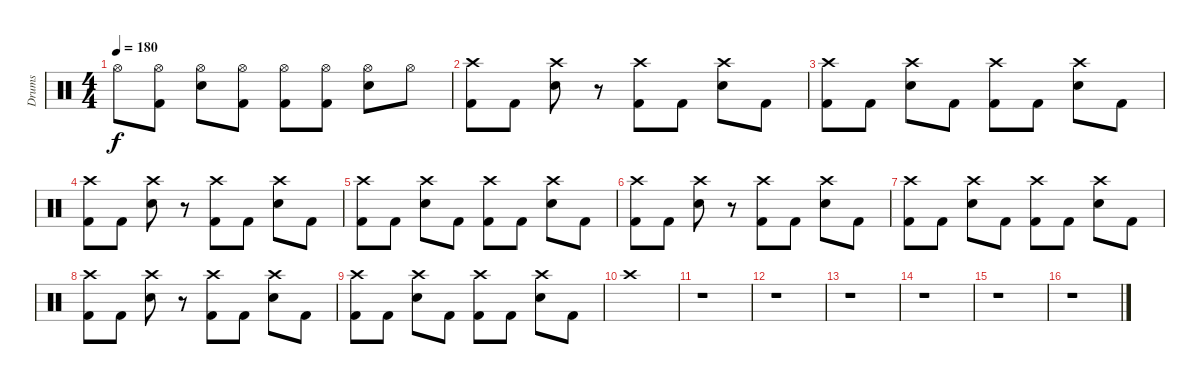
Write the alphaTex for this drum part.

\track ("Drums" "Drums") {instrument percussion}
\staff {score}
\articulation defaults
\ts (4 4)
\tempo 180
\clef neutral
\ks c "Hi-Hat (open)".8{dy f}
("Hi-Hat (open)" "Kick (hit) 2").8 ("Hi-Hat (open)" "Electric Snare (hit)").8 ("Hi-Hat (open)" "Kick (hit) 2").8 ("Hi-Hat (open)" "Kick (hit) 2").8 ("Hi-Hat (open)" "Kick (hit) 2").8 ("Hi-Hat (open)" "Electric Snare (hit)").8 "Hi-Hat (open)".8 |
("Crash high (hit)" "Kick (hit) 2").8 "Kick (hit) 2".8 ("Crash high (hit)" "Electric Snare (hit)").8 r.8 ("Crash high (hit)" "Kick (hit) 2").8 "Kick (hit) 2".8 ("Crash high (hit)" "Electric Snare (hit)").8 "Kick (hit) 2".8 |
("Crash high (hit)" "Kick (hit) 2").8 "Kick (hit) 2".8 ("Crash high (hit)" "Electric Snare (hit)").8 "Kick (hit) 2".8 ("Crash high (hit)" "Kick (hit) 2").8 "Kick (hit) 2".8 ("Crash high (hit)" "Electric Snare (hit)").8 "Kick (hit) 2".8 |
("Crash high (hit)" "Kick (hit) 2").8 "Kick (hit) 2".8 ("Crash high (hit)" "Electric Snare (hit)").8 r.8 ("Crash high (hit)" "Kick (hit) 2").8 "Kick (hit) 2".8 ("Crash high (hit)" "Electric Snare (hit)").8 "Kick (hit) 2".8 |
("Crash high (hit)" "Kick (hit) 2").8 "Kick (hit) 2".8 ("Crash high (hit)" "Electric Snare (hit)").8 "Kick (hit) 2".8 ("Crash high (hit)" "Kick (hit) 2").8 "Kick (hit) 2".8 ("Crash high (hit)" "Electric Snare (hit)").8 "Kick (hit) 2".8 |
("Crash high (hit)" "Kick (hit) 2").8 "Kick (hit) 2".8 ("Crash high (hit)" "Electric Snare (hit)").8 r.8 ("Crash high (hit)" "Kick (hit) 2").8 "Kick (hit) 2".8 ("Crash high (hit)" "Electric Snare (hit)").8 "Kick (hit) 2".8 |
("Crash high (hit)" "Kick (hit) 2").8 "Kick (hit) 2".8 ("Crash high (hit)" "Electric Snare (hit)").8 "Kick (hit) 2".8 ("Crash high (hit)" "Kick (hit) 2").8 "Kick (hit) 2".8 ("Crash high (hit)" "Electric Snare (hit)").8 "Kick (hit) 2".8 |
("Crash high (hit)" "Kick (hit) 2").8 "Kick (hit) 2".8 ("Crash high (hit)" "Electric Snare (hit)").8 r.8 ("Crash high (hit)" "Kick (hit) 2").8 "Kick (hit) 2".8 ("Crash high (hit)" "Electric Snare (hit)").8 "Kick (hit) 2".8 |
("Crash high (hit)" "Kick (hit) 2").8 "Kick (hit) 2".8 ("Crash high (hit)" "Electric Snare (hit)").8 "Kick (hit) 2".8 ("Crash high (hit)" "Kick (hit) 2").8 "Kick (hit) 2".8 ("Crash high (hit)" "Electric Snare (hit)").8 "Kick (hit) 2".8 |
"Crash high (hit)".1 |
r.1 |
r.1 |
r.1 |
r.1 |
r.1 |
r.1
